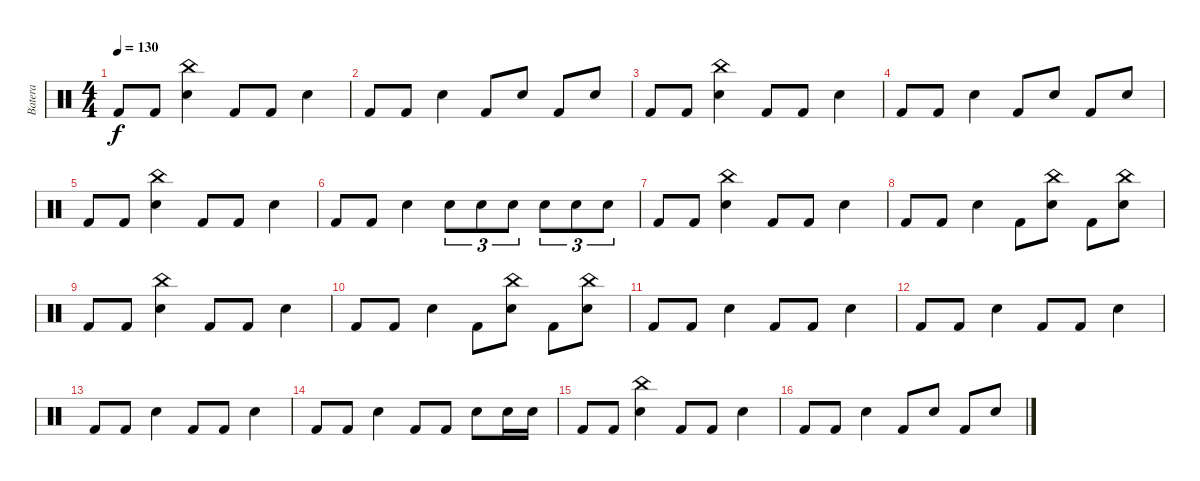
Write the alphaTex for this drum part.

\track ("Batera" "Batera") {instrument percussion}
\staff {score}
\articulation defaults
\ts (4 4)
\tempo 130
\clef neutral
\ks c "Kick (hit) 2".8{dy f} "Kick (hit) 2".8
("Snare (hit) 2" "China (hit)").4 "Kick (hit) 2".8 "Kick (hit) 2".8 "Snare (hit) 2".4 |
"Kick (hit) 2".8 "Kick (hit) 2".8 "Snare (hit) 2".4 "Kick (hit) 2".8 "Snare (hit) 2".8 "Kick (hit) 2".8 "Snare (hit) 2".8 |
"Kick (hit) 2".8 "Kick (hit) 2".8 ("Snare (hit) 2" "China (hit)").4 "Kick (hit) 2".8 "Kick (hit) 2".8 "Snare (hit) 2".4 |
"Kick (hit) 2".8 "Kick (hit) 2".8 "Snare (hit) 2".4 "Kick (hit) 2".8 "Snare (hit) 2".8 "Kick (hit) 2".8 "Snare (hit) 2".8 |
"Kick (hit) 2".8 "Kick (hit) 2".8 ("Snare (hit) 2" "China (hit)").4 "Kick (hit) 2".8 "Kick (hit) 2".8 "Snare (hit) 2".4 |
"Kick (hit) 2".8 "Kick (hit) 2".8 "Snare (hit) 2".4 "Snare (hit) 2".8{tu (3 2)} "Snare (hit) 2".8{tu (3 2)} "Snare (hit) 2".8{tu (3 2)} "Snare (hit) 2".8{tu (3 2)} "Snare (hit) 2".8{tu (3 2)} "Snare (hit) 2".8{tu (3 2)} |
"Kick (hit) 2".8 "Kick (hit) 2".8 ("Snare (hit) 2" "China (hit)").4 "Kick (hit) 2".8 "Kick (hit) 2".8 "Snare (hit) 2".4 |
"Kick (hit) 2".8 "Kick (hit) 2".8 "Snare (hit) 2".4 "Kick (hit) 2".8 ("Snare (hit) 2" "China (hit)").8 "Kick (hit) 2".8 ("Snare (hit) 2" "China (hit)").8 |
"Kick (hit) 2".8 "Kick (hit) 2".8 ("Snare (hit) 2" "China (hit)").4 "Kick (hit) 2".8 "Kick (hit) 2".8 "Snare (hit) 2".4 |
"Kick (hit) 2".8 "Kick (hit) 2".8 "Snare (hit) 2".4 "Kick (hit) 2".8 ("Snare (hit) 2" "China (hit)").8 "Kick (hit) 2".8 ("Snare (hit) 2" "China (hit)").8 |
"Kick (hit) 2".8 "Kick (hit) 2".8 "Snare (hit) 2".4 "Kick (hit) 2".8 "Kick (hit) 2".8 "Snare (hit) 2".4 |
"Kick (hit) 2".8 "Kick (hit) 2".8 "Snare (hit) 2".4 "Kick (hit) 2".8 "Kick (hit) 2".8 "Snare (hit) 2".4 |
"Kick (hit) 2".8 "Kick (hit) 2".8 "Snare (hit) 2".4 "Kick (hit) 2".8 "Kick (hit) 2".8 "Snare (hit) 2".4 |
"Kick (hit) 2".8 "Kick (hit) 2".8 "Snare (hit) 2".4 "Kick (hit) 2".8 "Kick (hit) 2".8 "Snare (hit) 2".8 "Snare (hit) 2".16 "Snare (hit) 2".16 |
"Kick (hit) 2".8 "Kick (hit) 2".8 ("Snare (hit) 2" "China (hit)").4 "Kick (hit) 2".8 "Kick (hit) 2".8 "Snare (hit) 2".4 |
"Kick (hit) 2".8 "Kick (hit) 2".8 "Snare (hit) 2".4 "Kick (hit) 2".8 "Snare (hit) 2".8 "Kick (hit) 2".8 "Snare (hit) 2".8
